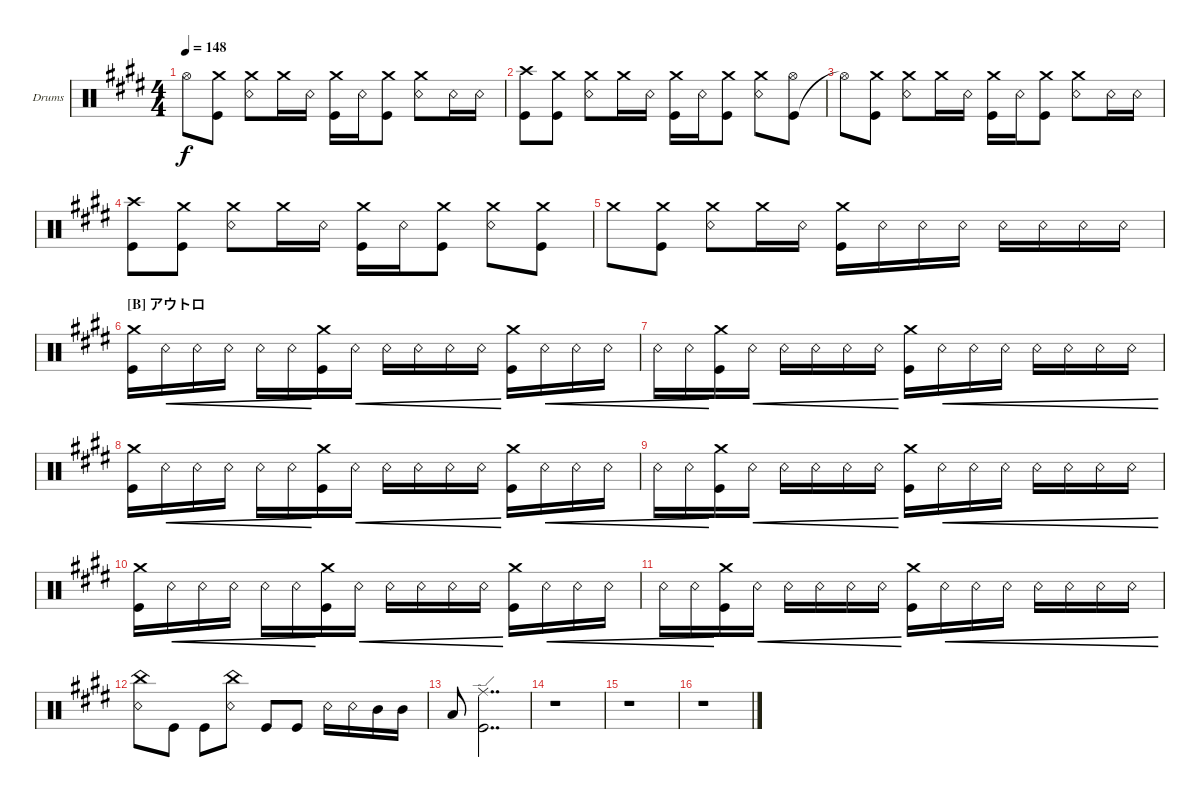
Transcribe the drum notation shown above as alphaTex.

\bracketExtendMode groupsimilarinstruments
\firstSystemTrackNameOrientation horizontal
\otherSystemsTrackNameOrientation horizontal
\track ("Ichigo" "Drums") {instrument percussion}
\staff {score}
\articulation defaults
\ts (4 4)
\tempo 148
\clef neutral
\ks e "Hi-Hat (open)"{t}.8{dy f}
("Kick (hit)" "Crash medium (hit)").8 ("Snare (rim shot)" "Crash medium (hit)").8 "Crash medium (hit)".16 "Snare (rim shot)".16 ("Kick (hit)" "Crash medium (hit)").16 "Snare (rim shot)".16 ("Kick (hit)" "Crash medium (hit)").8 ("Snare (rim shot)" "Crash medium (hit)").8 "Snare (rim shot)".16 "Snare (rim shot)".16 |
("Kick (hit)" "Crash high (hit)").8 ("Kick (hit)" "Crash medium (hit)").8 ("Snare (rim shot)" "Crash medium (hit)").8 "Crash medium (hit)".16 "Snare (rim shot)".16 ("Kick (hit)" "Crash medium (hit)").16 "Snare (rim shot)".16 ("Kick (hit)" "Crash medium (hit)").8 ("Snare (rim shot)" "Crash medium (hit)").8 ("Kick (hit)" "Hi-Hat (open)").8 |
"Hi-Hat (open)"{t}.8 ("Kick (hit)" "Crash medium (hit)").8 ("Snare (rim shot)" "Crash medium (hit)").8 "Crash medium (hit)".16 "Snare (rim shot)".16 ("Kick (hit)" "Crash medium (hit)").16 "Snare (rim shot)".16 ("Kick (hit)" "Crash medium (hit)").8 ("Snare (rim shot)" "Crash medium (hit)").8 "Snare (rim shot)".16 "Snare (rim shot)".16 |
("Kick (hit)" "Crash high (hit)").8 ("Kick (hit)" "Crash medium (hit)").8 ("Snare (rim shot)" "Crash medium (hit)").8 "Crash medium (hit)".16 "Snare (rim shot)".16 ("Kick (hit)" "Crash medium (hit)").16 "Snare (rim shot)".16 ("Kick (hit)" "Crash medium (hit)").8 ("Snare (rim shot)" "Crash medium (hit)").8 ("Kick (hit)" "Crash medium (hit)").8 |
"Crash medium (hit)".8 ("Kick (hit)" "Crash medium (hit)").8 ("Snare (rim shot)" "Crash medium (hit)").8 "Crash medium (hit)".16 "Snare (rim shot)".16 ("Crash medium (hit)" "Kick (hit)").16 "Snare (rim shot)".16 "Snare (rim shot)".16 "Snare (rim shot)".16 "Snare (rim shot)".16 "Snare (rim shot)".16 "Snare (rim shot)".16 "Snare (rim shot)".16 |
\section ("B" "アウトロ")
("Crash medium (hit)" "Kick (hit)").16 "Snare (rim shot)".16{cre} "Snare (rim shot)".16{cre} "Snare (rim shot)".16{cre} "Snare (rim shot)".16{cre} "Snare (rim shot)".16{cre} ("Crash medium (hit)" "Kick (hit)").16 "Snare (rim shot)".16{cre} "Snare (rim shot)".16{cre} "Snare (rim shot)".16{cre} "Snare (rim shot)".16{cre} "Snare (rim shot)".16{cre} ("Crash medium (hit)" "Kick (hit)").16 "Snare (rim shot)".16{cre} "Snare (rim shot)".16{cre} "Snare (rim shot)".16{cre} |
"Snare (rim shot)".16{cre} "Snare (rim shot)".16{cre} ("Crash medium (hit)" "Kick (hit)").16 "Snare (rim shot)".16{cre} "Snare (rim shot)".16{cre} "Snare (rim shot)".16{cre} "Snare (rim shot)".16{cre} "Snare (rim shot)".16{cre} ("Crash medium (hit)" "Kick (hit)").16 "Snare (rim shot)".16{cre} "Snare (rim shot)".16{cre} "Snare (rim shot)".16{cre} "Snare (rim shot)".16{cre} "Snare (rim shot)".16{cre} "Snare (rim shot)".16{cre} "Snare (rim shot)".16{cre} |
("Crash medium (hit)" "Kick (hit)").16 "Snare (rim shot)".16{cre} "Snare (rim shot)".16{cre} "Snare (rim shot)".16{cre} "Snare (rim shot)".16{cre} "Snare (rim shot)".16{cre} ("Crash medium (hit)" "Kick (hit)").16 "Snare (rim shot)".16{cre} "Snare (rim shot)".16{cre} "Snare (rim shot)".16{cre} "Snare (rim shot)".16{cre} "Snare (rim shot)".16{cre} ("Crash medium (hit)" "Kick (hit)").16 "Snare (rim shot)".16{cre} "Snare (rim shot)".16{cre} "Snare (rim shot)".16{cre} |
"Snare (rim shot)".16{cre} "Snare (rim shot)".16{cre} ("Crash medium (hit)" "Kick (hit)").16 "Snare (rim shot)".16{cre} "Snare (rim shot)".16{cre} "Snare (rim shot)".16{cre} "Snare (rim shot)".16{cre} "Snare (rim shot)".16{cre} ("Crash medium (hit)" "Kick (hit)").16 "Snare (rim shot)".16{cre} "Snare (rim shot)".16{cre} "Snare (rim shot)".16{cre} "Snare (rim shot)".16{cre} "Snare (rim shot)".16{cre} "Snare (rim shot)".16{cre} "Snare (rim shot)".16{cre} |
("Crash medium (hit)" "Kick (hit)").16 "Snare (rim shot)".16{cre} "Snare (rim shot)".16{cre} "Snare (rim shot)".16{cre} "Snare (rim shot)".16{cre} "Snare (rim shot)".16{cre} ("Crash medium (hit)" "Kick (hit)").16 "Snare (rim shot)".16{cre} "Snare (rim shot)".16{cre} "Snare (rim shot)".16{cre} "Snare (rim shot)".16{cre} "Snare (rim shot)".16{cre} ("Crash medium (hit)" "Kick (hit)").16 "Snare (rim shot)".16{cre} "Snare (rim shot)".16{cre} "Snare (rim shot)".16{cre} |
"Snare (rim shot)".16{cre} "Snare (rim shot)".16{cre} ("Crash medium (hit)" "Kick (hit)").16 "Snare (rim shot)".16{cre} "Snare (rim shot)".16{cre} "Snare (rim shot)".16{cre} "Snare (rim shot)".16{cre} "Snare (rim shot)".16{cre} ("Crash medium (hit)" "Kick (hit)").16 "Snare (rim shot)".16{cre} "Snare (rim shot)".16{cre} "Snare (rim shot)".16{cre} "Snare (rim shot)".16{cre} "Snare (rim shot)".16{cre} "Snare (rim shot)".16{cre} "Snare (rim shot)".16{cre} |
("China (hit)" "Snare (rim shot)").8 "Kick (hit)".8 "Kick (hit)".8 ("Snare (rim shot)" "China (hit)").8 "Kick (hit)".8 "Kick (hit)".8 "Snare (rim shot)".16 "Snare (rim shot)".16 "Mid Tom (hit)".16 "Mid Tom (hit)".16 |
"Low Tom (hit)".8 ("Kick (hit)" "Ride (edge)").2{dd} |
r.1 |
r.1 |
r.1
